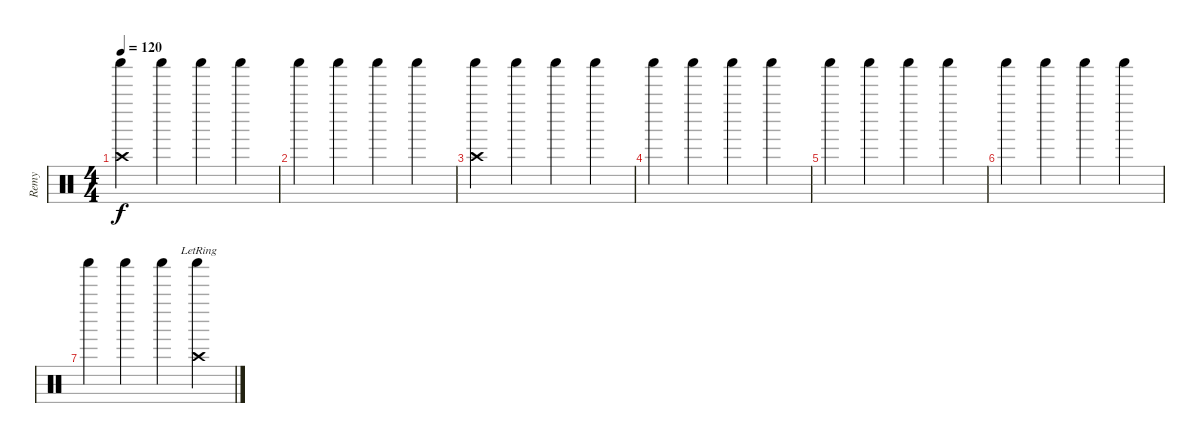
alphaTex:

\track ("Remy" "Remy") {instrument percussion}
\staff {score}
\articulation defaults
\ts (4 4)
\tempo 120
\clef neutral
\ks c
("Shaker (hit)" "Crash high (hit)").4{dy f} "Shaker (hit)".4 "Shaker (hit)".4 "Shaker (hit)".4 |
"Shaker (hit)".4 "Shaker (hit)".4 "Shaker (hit)".4 "Shaker (hit)".4 |
("Shaker (hit)" "Crash high (hit)").4 "Shaker (hit)".4 "Shaker (hit)".4 "Shaker (hit)".4 |
"Shaker (hit)".4 "Shaker (hit)".4 "Shaker (hit)".4 "Shaker (hit)".4 |
"Shaker (hit)".4 "Shaker (hit)".4 "Shaker (hit)".4 "Shaker (hit)".4 |
"Shaker (hit)".4 "Shaker (hit)".4 "Shaker (hit)".4 "Shaker (hit)".4 |
"Shaker (hit)".4 "Shaker (hit)".4 "Shaker (hit)".4 ("Shaker (hit)"{lr} "Crash high (hit)"{lr}).4
